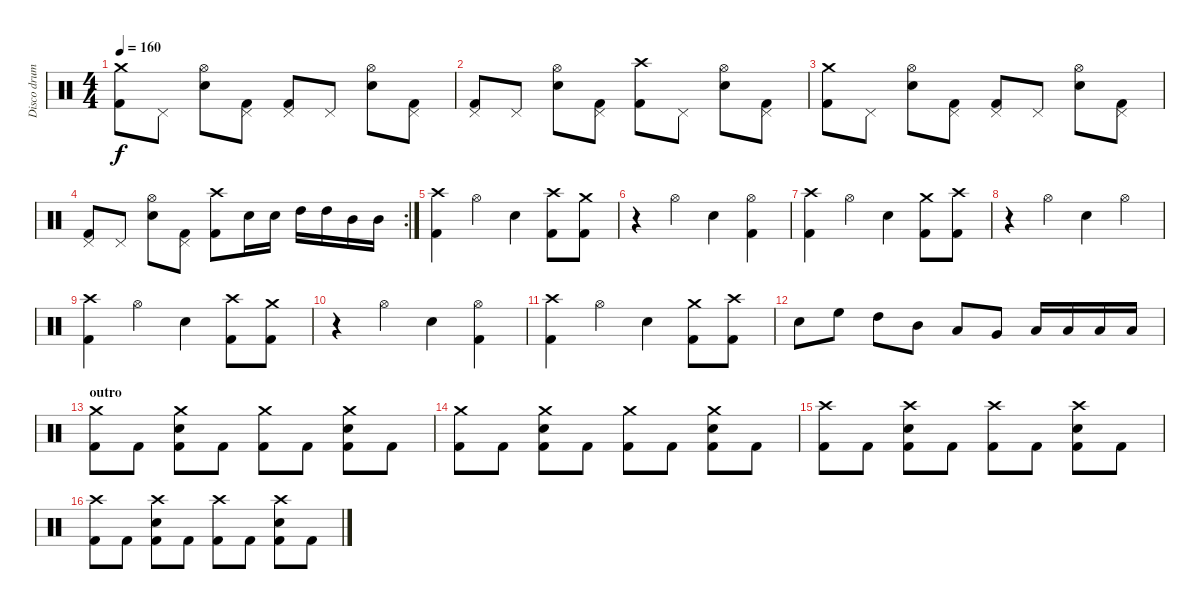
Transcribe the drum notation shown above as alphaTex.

\track ("Disco drum" "Disco drum") {instrument percussion}
\staff {score}
\articulation defaults
\ts (4 4)
\tempo 160
\clef neutral
\ks c
("Crash medium (hit)" "Kick (hit) 2").8{dy f} "Pedal Hi-Hat (hit)".8 ("Hi-Hat (open)" "Electric Snare (hit)").8 ("Pedal Hi-Hat (hit)" "Kick (hit) 2").8 ("Pedal Hi-Hat (hit)" "Kick (hit) 2").8 "Pedal Hi-Hat (hit)".8 ("Hi-Hat (open)" "Electric Snare (hit)").8 ("Pedal Hi-Hat (hit)" "Kick (hit) 2").8 |
("Pedal Hi-Hat (hit)" "Kick (hit) 2").8 "Pedal Hi-Hat (hit)".8 ("Hi-Hat (open)" "Electric Snare (hit)").8 ("Pedal Hi-Hat (hit)" "Kick (hit) 2").8 ("Crash high (hit)" "Kick (hit) 2").8 "Pedal Hi-Hat (hit)".8 ("Hi-Hat (open)" "Electric Snare (hit)").8 ("Pedal Hi-Hat (hit)" "Kick (hit) 2").8 |
("Crash medium (hit)" "Kick (hit) 2").8 "Pedal Hi-Hat (hit)".8 ("Hi-Hat (open)" "Electric Snare (hit)").8 ("Pedal Hi-Hat (hit)" "Kick (hit) 2").8 ("Pedal Hi-Hat (hit)" "Kick (hit) 2").8 "Pedal Hi-Hat (hit)".8 ("Hi-Hat (open)" "Electric Snare (hit)").8 ("Pedal Hi-Hat (hit)" "Kick (hit) 2").8 |
\rc 2
("Pedal Hi-Hat (hit)" "Kick (hit) 2").8 "Pedal Hi-Hat (hit)".8 ("Hi-Hat (open)" "Electric Snare (hit)").8 ("Pedal Hi-Hat (hit)" "Kick (hit) 2").8 ("Crash high (hit)" "Kick (hit) 2").8 "Electric Snare (hit)".16 "Electric Snare (hit)".16 "High Tom (hit)".16 "High Tom (hit)".16 "Mid Tom (hit)".16 "Mid Tom (hit)".16 |
("Crash high (hit)" "Kick (hit) 2").4 "Hi-Hat (open)".4 "Electric Snare (hit)".4 ("Crash high (hit)" "Kick (hit) 2").8 ("Crash medium (hit)" "Kick (hit) 2").8 |
r.4 "Hi-Hat (open)".4 "Electric Snare (hit)".4 ("Hi-Hat (open)" "Kick (hit) 2").4 |
("Crash high (hit)" "Kick (hit) 2").4 "Hi-Hat (open)".4 "Electric Snare (hit)".4 ("Crash medium (hit)" "Kick (hit) 2").8 ("Crash high (hit)" "Kick (hit) 2").8 |
r.4 "Hi-Hat (open)".4 "Electric Snare (hit)".4 "Hi-Hat (open)".4 |
("Crash high (hit)" "Kick (hit) 2").4 "Hi-Hat (open)".4 "Electric Snare (hit)".4 ("Crash high (hit)" "Kick (hit) 2").8 ("Crash medium (hit)" "Kick (hit) 2").8 |
r.4 "Hi-Hat (open)".4 "Electric Snare (hit)".4 ("Hi-Hat (open)" "Kick (hit) 2").4 |
("Crash high (hit)" "Kick (hit) 2").4 "Hi-Hat (open)".4 "Electric Snare (hit)".4 ("Crash medium (hit)" "Kick (hit) 2").8 ("Crash high (hit)" "Kick (hit) 2").8 |
"Electric Snare (hit)".8 "High Floor Tom (hit)".8 "High Tom (hit)".8 "Mid Tom (hit)".8 "Low Tom (hit)".8 "Very Low Tom (hit)".8 "Low Floor Tom (hit)".16 "Low Floor Tom (hit)".16 "Low Floor Tom (hit)".16 "Low Floor Tom (hit)".16 |
\section ("" "outro")
("Crash medium (hit)" "Kick (hit) 2").8 "Kick (hit) 2".8 ("Crash medium (hit)" "Electric Snare (hit)" "Kick (hit) 2").8 "Kick (hit) 2".8 ("Crash medium (hit)" "Kick (hit) 2").8 "Kick (hit) 2".8 ("Crash medium (hit)" "Electric Snare (hit)" "Kick (hit) 2").8 "Kick (hit) 2".8 |
("Crash medium (hit)" "Kick (hit) 2").8 "Kick (hit) 2".8 ("Crash medium (hit)" "Electric Snare (hit)" "Kick (hit) 2").8 "Kick (hit) 2".8 ("Crash medium (hit)" "Kick (hit) 2").8 "Kick (hit) 2".8 ("Crash medium (hit)" "Electric Snare (hit)" "Kick (hit) 2").8 "Kick (hit) 2".8 |
("Crash high (hit)" "Kick (hit) 2").8 "Kick (hit) 2".8 ("Crash high (hit)" "Electric Snare (hit)" "Kick (hit) 2").8 "Kick (hit) 2".8 ("Crash high (hit)" "Kick (hit) 2").8 "Kick (hit) 2".8 ("Crash high (hit)" "Electric Snare (hit)" "Kick (hit) 2").8 "Kick (hit) 2".8 |
("Crash high (hit)" "Kick (hit) 2").8 "Kick (hit) 2".8 ("Crash high (hit)" "Electric Snare (hit)" "Kick (hit) 2").8 "Kick (hit) 2".8 ("Crash high (hit)" "Kick (hit) 2").8 "Kick (hit) 2".8 ("Crash high (hit)" "Electric Snare (hit)" "Kick (hit) 2").8 "Kick (hit) 2".8
